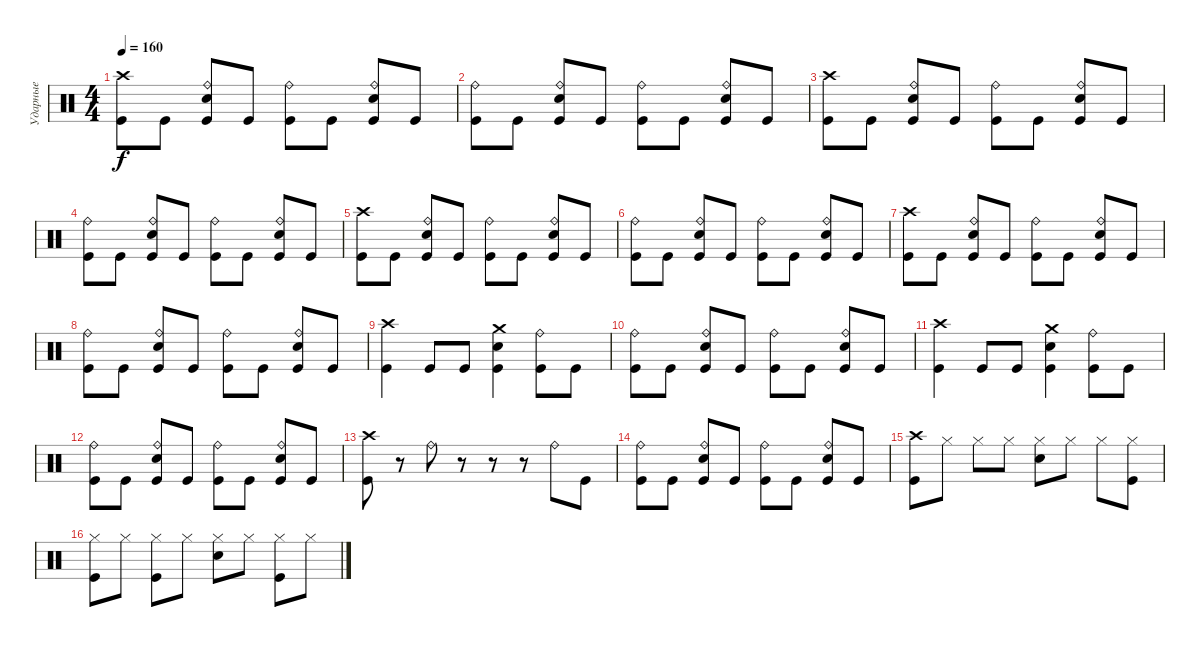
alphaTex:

\track ("Ударные" "Ударные") {instrument percussion}
\staff {score}
\articulation defaults
\ts (4 4)
\tempo 160
\clef neutral
\ks c
("Crash high (hit)" "Kick (hit)").8{dy f} "Kick (hit)".8 ("Ride (bell)" "Electric Snare (hit)" "Kick (hit)").8 "Kick (hit)".8 ("Ride (bell)" "Kick (hit)").8 "Kick (hit)".8 ("Ride (bell)" "Electric Snare (hit)" "Kick (hit)").8 "Kick (hit)".8 |
("Ride (bell)" "Kick (hit)").8 "Kick (hit)".8 ("Ride (bell)" "Electric Snare (hit)" "Kick (hit)").8 "Kick (hit)".8 ("Ride (bell)" "Kick (hit)").8 "Kick (hit)".8 ("Ride (bell)" "Electric Snare (hit)" "Kick (hit)").8 "Kick (hit)".8 |
("Crash high (hit)" "Kick (hit)").8 "Kick (hit)".8 ("Ride (bell)" "Electric Snare (hit)" "Kick (hit)").8 "Kick (hit)".8 ("Ride (bell)" "Kick (hit)").8 "Kick (hit)".8 ("Ride (bell)" "Electric Snare (hit)" "Kick (hit)").8 "Kick (hit)".8 |
("Ride (bell)" "Kick (hit)").8 "Kick (hit)".8 ("Ride (bell)" "Electric Snare (hit)" "Kick (hit)").8 "Kick (hit)".8 ("Ride (bell)" "Kick (hit)").8 "Kick (hit)".8 ("Ride (bell)" "Electric Snare (hit)" "Kick (hit)").8 "Kick (hit)".8 |
("Crash high (hit)" "Kick (hit)").8 "Kick (hit)".8 ("Ride (bell)" "Electric Snare (hit)" "Kick (hit)").8 "Kick (hit)".8 ("Ride (bell)" "Kick (hit)").8 "Kick (hit)".8 ("Ride (bell)" "Electric Snare (hit)" "Kick (hit)").8 "Kick (hit)".8 |
("Ride (bell)" "Kick (hit)").8 "Kick (hit)".8 ("Ride (bell)" "Electric Snare (hit)" "Kick (hit)").8 "Kick (hit)".8 ("Ride (bell)" "Kick (hit)").8 "Kick (hit)".8 ("Ride (bell)" "Electric Snare (hit)" "Kick (hit)").8 "Kick (hit)".8 |
("Crash high (hit)" "Kick (hit)").8 "Kick (hit)".8 ("Ride (bell)" "Electric Snare (hit)" "Kick (hit)").8 "Kick (hit)".8 ("Ride (bell)" "Kick (hit)").8 "Kick (hit)".8 ("Ride (bell)" "Electric Snare (hit)" "Kick (hit)").8 "Kick (hit)".8 |
("Ride (bell)" "Kick (hit)").8 "Kick (hit)".8 ("Ride (bell)" "Electric Snare (hit)" "Kick (hit)").8 "Kick (hit)".8 ("Ride (bell)" "Kick (hit)").8 "Kick (hit)".8 ("Ride (bell)" "Electric Snare (hit)" "Kick (hit)").8 "Kick (hit)".8 |
("Crash high (hit)" "Kick (hit)").4 "Kick (hit)".8 "Kick (hit)".8 ("Crash medium (hit)" "Electric Snare (hit)" "Kick (hit)").4 ("Ride (bell)" "Kick (hit)").8 "Kick (hit)".8 |
("Ride (bell)" "Kick (hit)").8 "Kick (hit)".8 ("Ride (bell)" "Electric Snare (hit)" "Kick (hit)").8 "Kick (hit)".8 ("Ride (bell)" "Kick (hit)").8 "Kick (hit)".8 ("Ride (bell)" "Electric Snare (hit)" "Kick (hit)").8 "Kick (hit)".8 |
("Crash high (hit)" "Kick (hit)").4 "Kick (hit)".8 "Kick (hit)".8 ("Crash medium (hit)" "Electric Snare (hit)" "Kick (hit)").4 ("Ride (bell)" "Kick (hit)").8 "Kick (hit)".8 |
("Ride (bell)" "Kick (hit)").8 "Kick (hit)".8 ("Ride (bell)" "Electric Snare (hit)" "Kick (hit)").8 "Kick (hit)".8 ("Ride (bell)" "Kick (hit)").8 "Kick (hit)".8 ("Ride (bell)" "Electric Snare (hit)" "Kick (hit)").8 "Kick (hit)".8 |
("Crash high (hit)" "Kick (hit)").8 r.8 "Ride (bell)".8 r.8 r.8 r.8 "Ride (bell)".8 "Kick (hit)".8 |
("Ride (bell)" "Kick (hit)").8 "Kick (hit)".8 ("Ride (bell)" "Electric Snare (hit)" "Kick (hit)").8 "Kick (hit)".8 ("Ride (bell)" "Kick (hit)").8 "Kick (hit)".8 ("Ride (bell)" "Electric Snare (hit)" "Kick (hit)").8 "Kick (hit)".8 |
("Crash high (hit)" "Kick (hit)").8 "Hi-Hat (closed)".8 "Hi-Hat (closed)".8 "Hi-Hat (closed)".8 ("Hi-Hat (closed)" "Electric Snare (hit)").8 "Hi-Hat (closed)".8 "Hi-Hat (closed)".8 ("Hi-Hat (closed)" "Kick (hit)").8 |
("Hi-Hat (closed)" "Kick (hit)").8 "Hi-Hat (closed)".8 ("Hi-Hat (closed)" "Kick (hit)").8 "Hi-Hat (closed)".8 ("Hi-Hat (closed)" "Electric Snare (hit)").8 "Hi-Hat (closed)".8 ("Hi-Hat (closed)" "Kick (hit)").8 "Hi-Hat (closed)".8
